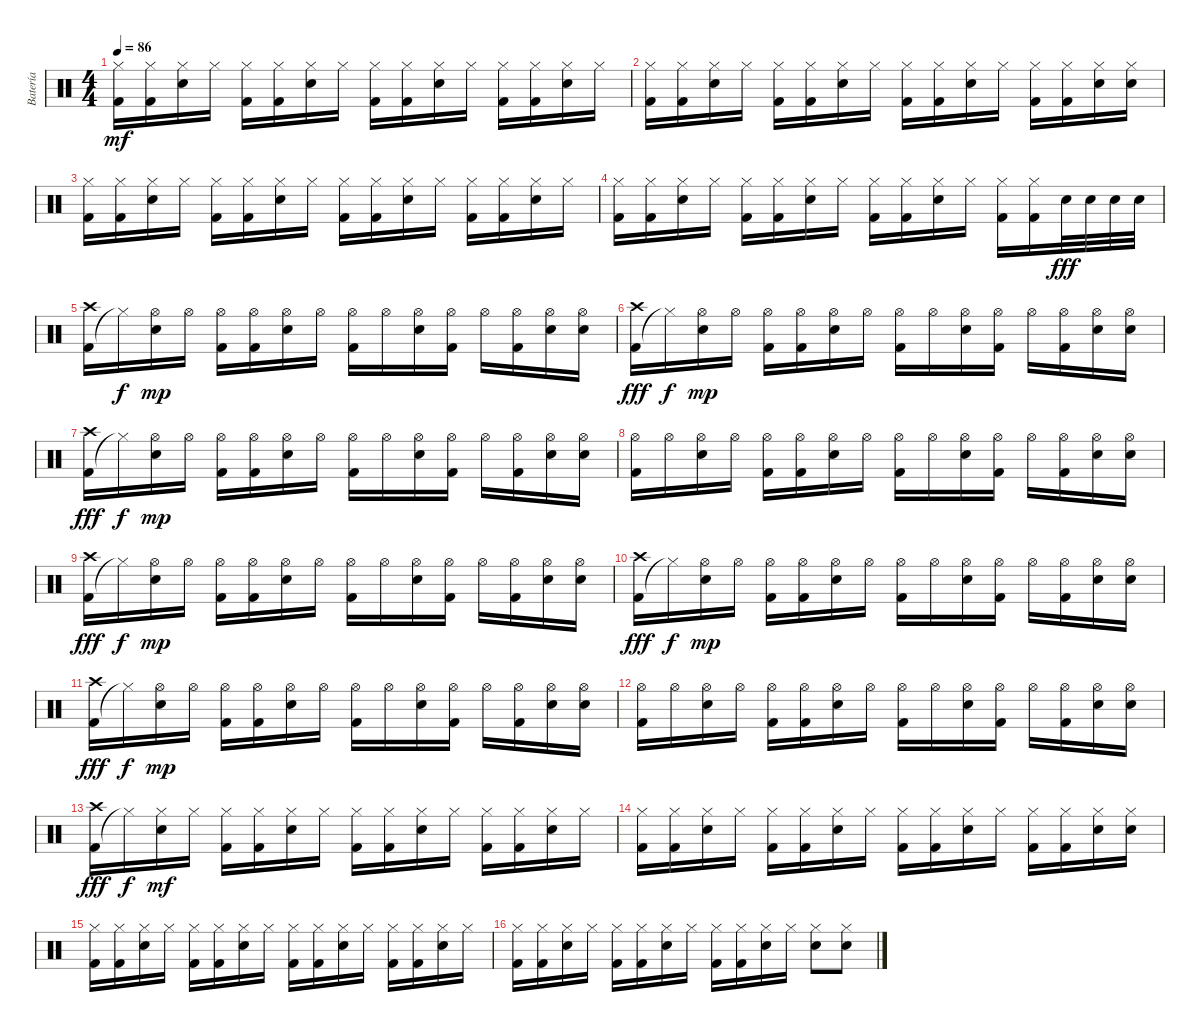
\track ("Batería" "Batería") {instrument percussion}
\staff {score}
\articulation defaults
\ts (4 4)
\tempo 86
\clef neutral
\ks c
("Kick (hit) 2" "Hi-Hat (closed)").16{dy mf} ("Kick (hit) 2" "Hi-Hat (closed)").16 ("Electric Snare (hit)" "Hi-Hat (closed)").16 "Hi-Hat (closed)".16 ("Kick (hit) 2" "Hi-Hat (closed)").16 ("Kick (hit) 2" "Hi-Hat (closed)").16 ("Electric Snare (hit)" "Hi-Hat (closed)").16 "Hi-Hat (closed)".16 ("Kick (hit) 2" "Hi-Hat (closed)").16 ("Kick (hit) 2" "Hi-Hat (closed)").16 ("Electric Snare (hit)" "Hi-Hat (closed)").16 "Hi-Hat (closed)".16 ("Kick (hit) 2" "Hi-Hat (closed)").16 ("Kick (hit) 2" "Hi-Hat (closed)").16 ("Electric Snare (hit)" "Hi-Hat (closed)").16 "Hi-Hat (closed)".16 |
("Kick (hit) 2" "Hi-Hat (closed)").16 ("Kick (hit) 2" "Hi-Hat (closed)").16 ("Electric Snare (hit)" "Hi-Hat (closed)").16 "Hi-Hat (closed)".16 ("Kick (hit) 2" "Hi-Hat (closed)").16 ("Kick (hit) 2" "Hi-Hat (closed)").16 ("Electric Snare (hit)" "Hi-Hat (closed)").16 "Hi-Hat (closed)".16 ("Kick (hit) 2" "Hi-Hat (closed)").16 ("Kick (hit) 2" "Hi-Hat (closed)").16 ("Electric Snare (hit)" "Hi-Hat (closed)").16 "Hi-Hat (closed)".16 ("Kick (hit) 2" "Hi-Hat (closed)").16 ("Kick (hit) 2" "Hi-Hat (closed)").16 ("Electric Snare (hit)" "Hi-Hat (closed)").16 ("Electric Snare (hit)" "Hi-Hat (closed)").16 |
("Kick (hit) 2" "Hi-Hat (closed)").16 ("Kick (hit) 2" "Hi-Hat (closed)").16 ("Electric Snare (hit)" "Hi-Hat (closed)").16 "Hi-Hat (closed)".16 ("Kick (hit) 2" "Hi-Hat (closed)").16 ("Kick (hit) 2" "Hi-Hat (closed)").16 ("Electric Snare (hit)" "Hi-Hat (closed)").16 "Hi-Hat (closed)".16 ("Kick (hit) 2" "Hi-Hat (closed)").16 ("Kick (hit) 2" "Hi-Hat (closed)").16 ("Electric Snare (hit)" "Hi-Hat (closed)").16 "Hi-Hat (closed)".16 ("Kick (hit) 2" "Hi-Hat (closed)").16 ("Kick (hit) 2" "Hi-Hat (closed)").16 ("Electric Snare (hit)" "Hi-Hat (closed)").16 "Hi-Hat (closed)".16 |
("Kick (hit) 2" "Hi-Hat (closed)").16 ("Kick (hit) 2" "Hi-Hat (closed)").16 ("Electric Snare (hit)" "Hi-Hat (closed)").16 "Hi-Hat (closed)".16 ("Kick (hit) 2" "Hi-Hat (closed)").16 ("Kick (hit) 2" "Hi-Hat (closed)").16 ("Electric Snare (hit)" "Hi-Hat (closed)").16 "Hi-Hat (closed)".16 ("Kick (hit) 2" "Hi-Hat (closed)").16 ("Kick (hit) 2" "Hi-Hat (closed)").16 ("Electric Snare (hit)" "Hi-Hat (closed)").16 "Hi-Hat (closed)".16 ("Kick (hit) 2" "Hi-Hat (closed)").16 ("Kick (hit) 2" "Hi-Hat (closed)").16 "Electric Snare (hit)".32{dy fff} "Electric Snare (hit)".32 "Electric Snare (hit)".32 "Electric Snare (hit)".32 |
("Kick (hit) 2" "Crash high (hit)").16 "Hi-Hat (closed)"{t}.16{dy f} ("Electric Snare (hit)" "Hi-Hat (open)").16{dy mp} "Hi-Hat (open)".16 ("Kick (hit) 2" "Hi-Hat (open)").16 ("Kick (hit) 2" "Hi-Hat (open)").16 ("Electric Snare (hit)" "Hi-Hat (open)").16 "Hi-Hat (open)".16 ("Kick (hit) 2" "Hi-Hat (open)").16 "Hi-Hat (open)".16 ("Electric Snare (hit)" "Hi-Hat (open)").16 ("Kick (hit) 2" "Hi-Hat (open)").16 "Hi-Hat (open)".16 ("Kick (hit) 2" "Hi-Hat (open)").16 ("Electric Snare (hit)" "Hi-Hat (open)").16 ("Electric Snare (hit)" "Hi-Hat (open)").16 |
("Kick (hit) 2" "Crash high (hit)").16{dy fff} "Hi-Hat (closed)"{t}.16{dy f} ("Electric Snare (hit)" "Hi-Hat (open)").16{dy mp} "Hi-Hat (open)".16 ("Kick (hit) 2" "Hi-Hat (open)").16 ("Kick (hit) 2" "Hi-Hat (open)").16 ("Electric Snare (hit)" "Hi-Hat (open)").16 "Hi-Hat (open)".16 ("Kick (hit) 2" "Hi-Hat (open)").16 "Hi-Hat (open)".16 ("Electric Snare (hit)" "Hi-Hat (open)").16 ("Kick (hit) 2" "Hi-Hat (open)").16 "Hi-Hat (open)".16 ("Kick (hit) 2" "Hi-Hat (open)").16 ("Electric Snare (hit)" "Hi-Hat (open)").16 ("Electric Snare (hit)" "Hi-Hat (open)").16 |
("Kick (hit) 2" "Crash high (hit)").16{dy fff} "Hi-Hat (closed)"{t}.16{dy f} ("Electric Snare (hit)" "Hi-Hat (open)").16{dy mp} "Hi-Hat (open)".16 ("Kick (hit) 2" "Hi-Hat (open)").16 ("Kick (hit) 2" "Hi-Hat (open)").16 ("Electric Snare (hit)" "Hi-Hat (open)").16 "Hi-Hat (open)".16 ("Kick (hit) 2" "Hi-Hat (open)").16 "Hi-Hat (open)".16 ("Electric Snare (hit)" "Hi-Hat (open)").16 ("Kick (hit) 2" "Hi-Hat (open)").16 "Hi-Hat (open)".16 ("Kick (hit) 2" "Hi-Hat (open)").16 ("Electric Snare (hit)" "Hi-Hat (open)").16 ("Electric Snare (hit)" "Hi-Hat (open)").16 |
("Kick (hit) 2" "Hi-Hat (open)").16 "Hi-Hat (open)".16 ("Electric Snare (hit)" "Hi-Hat (open)").16 "Hi-Hat (open)".16 ("Kick (hit) 2" "Hi-Hat (open)").16 ("Kick (hit) 2" "Hi-Hat (open)").16 ("Electric Snare (hit)" "Hi-Hat (open)").16 "Hi-Hat (open)".16 ("Kick (hit) 2" "Hi-Hat (open)").16 "Hi-Hat (open)".16 ("Electric Snare (hit)" "Hi-Hat (open)").16 ("Kick (hit) 2" "Hi-Hat (open)").16 "Hi-Hat (open)".16 ("Kick (hit) 2" "Hi-Hat (open)").16 ("Electric Snare (hit)" "Hi-Hat (open)").16 ("Electric Snare (hit)" "Hi-Hat (open)").16 |
("Kick (hit) 2" "Crash high (hit)").16{dy fff} "Hi-Hat (closed)"{t}.16{dy f} ("Electric Snare (hit)" "Hi-Hat (open)").16{dy mp} "Hi-Hat (open)".16 ("Kick (hit) 2" "Hi-Hat (open)").16 ("Kick (hit) 2" "Hi-Hat (open)").16 ("Electric Snare (hit)" "Hi-Hat (open)").16 "Hi-Hat (open)".16 ("Kick (hit) 2" "Hi-Hat (open)").16 "Hi-Hat (open)".16 ("Electric Snare (hit)" "Hi-Hat (open)").16 ("Kick (hit) 2" "Hi-Hat (open)").16 "Hi-Hat (open)".16 ("Kick (hit) 2" "Hi-Hat (open)").16 ("Electric Snare (hit)" "Hi-Hat (open)").16 ("Electric Snare (hit)" "Hi-Hat (open)").16 |
("Kick (hit) 2" "Crash high (hit)").16{dy fff} "Hi-Hat (closed)"{t}.16{dy f} ("Electric Snare (hit)" "Hi-Hat (open)").16{dy mp} "Hi-Hat (open)".16 ("Kick (hit) 2" "Hi-Hat (open)").16 ("Kick (hit) 2" "Hi-Hat (open)").16 ("Electric Snare (hit)" "Hi-Hat (open)").16 "Hi-Hat (open)".16 ("Kick (hit) 2" "Hi-Hat (open)").16 "Hi-Hat (open)".16 ("Electric Snare (hit)" "Hi-Hat (open)").16 ("Kick (hit) 2" "Hi-Hat (open)").16 "Hi-Hat (open)".16 ("Kick (hit) 2" "Hi-Hat (open)").16 ("Electric Snare (hit)" "Hi-Hat (open)").16 ("Electric Snare (hit)" "Hi-Hat (open)").16 |
("Kick (hit) 2" "Crash high (hit)").16{dy fff} "Hi-Hat (closed)"{t}.16{dy f} ("Electric Snare (hit)" "Hi-Hat (open)").16{dy mp} "Hi-Hat (open)".16 ("Kick (hit) 2" "Hi-Hat (open)").16 ("Kick (hit) 2" "Hi-Hat (open)").16 ("Electric Snare (hit)" "Hi-Hat (open)").16 "Hi-Hat (open)".16 ("Kick (hit) 2" "Hi-Hat (open)").16 "Hi-Hat (open)".16 ("Electric Snare (hit)" "Hi-Hat (open)").16 ("Kick (hit) 2" "Hi-Hat (open)").16 "Hi-Hat (open)".16 ("Kick (hit) 2" "Hi-Hat (open)").16 ("Electric Snare (hit)" "Hi-Hat (open)").16 ("Electric Snare (hit)" "Hi-Hat (open)").16 |
("Kick (hit) 2" "Hi-Hat (open)").16 "Hi-Hat (open)".16 ("Electric Snare (hit)" "Hi-Hat (open)").16 "Hi-Hat (open)".16 ("Kick (hit) 2" "Hi-Hat (open)").16 ("Kick (hit) 2" "Hi-Hat (open)").16 ("Electric Snare (hit)" "Hi-Hat (open)").16 "Hi-Hat (open)".16 ("Kick (hit) 2" "Hi-Hat (open)").16 "Hi-Hat (open)".16 ("Electric Snare (hit)" "Hi-Hat (open)").16 ("Kick (hit) 2" "Hi-Hat (open)").16 "Hi-Hat (open)".16 ("Kick (hit) 2" "Hi-Hat (open)").16 ("Electric Snare (hit)" "Hi-Hat (open)").16 ("Electric Snare (hit)" "Hi-Hat (open)").16 |
("Kick (hit) 2" "Crash high (hit)").16{dy fff} "Hi-Hat (closed)"{t}.16{dy f} ("Electric Snare (hit)" "Hi-Hat (closed)").16{dy mf} "Hi-Hat (closed)".16 ("Kick (hit) 2" "Hi-Hat (closed)").16 ("Kick (hit) 2" "Hi-Hat (closed)").16 ("Electric Snare (hit)" "Hi-Hat (closed)").16 "Hi-Hat (closed)".16 ("Kick (hit) 2" "Hi-Hat (closed)").16 ("Kick (hit) 2" "Hi-Hat (closed)").16 ("Electric Snare (hit)" "Hi-Hat (closed)").16 "Hi-Hat (closed)".16 ("Kick (hit) 2" "Hi-Hat (closed)").16 ("Kick (hit) 2" "Hi-Hat (closed)").16 ("Electric Snare (hit)" "Hi-Hat (closed)").16 "Hi-Hat (closed)".16 |
("Kick (hit) 2" "Hi-Hat (closed)").16 ("Kick (hit) 2" "Hi-Hat (closed)").16 ("Electric Snare (hit)" "Hi-Hat (closed)").16 "Hi-Hat (closed)".16 ("Kick (hit) 2" "Hi-Hat (closed)").16 ("Kick (hit) 2" "Hi-Hat (closed)").16 ("Electric Snare (hit)" "Hi-Hat (closed)").16 "Hi-Hat (closed)".16 ("Kick (hit) 2" "Hi-Hat (closed)").16 ("Kick (hit) 2" "Hi-Hat (closed)").16 ("Electric Snare (hit)" "Hi-Hat (closed)").16 "Hi-Hat (closed)".16 ("Kick (hit) 2" "Hi-Hat (closed)").16 ("Kick (hit) 2" "Hi-Hat (closed)").16 ("Electric Snare (hit)" "Hi-Hat (closed)").16 ("Electric Snare (hit)" "Hi-Hat (closed)").16 |
("Kick (hit) 2" "Hi-Hat (closed)").16 ("Kick (hit) 2" "Hi-Hat (closed)").16 ("Electric Snare (hit)" "Hi-Hat (closed)").16 "Hi-Hat (closed)".16 ("Kick (hit) 2" "Hi-Hat (closed)").16 ("Kick (hit) 2" "Hi-Hat (closed)").16 ("Electric Snare (hit)" "Hi-Hat (closed)").16 "Hi-Hat (closed)".16 ("Kick (hit) 2" "Hi-Hat (closed)").16 ("Kick (hit) 2" "Hi-Hat (closed)").16 ("Electric Snare (hit)" "Hi-Hat (closed)").16 "Hi-Hat (closed)".16 ("Kick (hit) 2" "Hi-Hat (closed)").16 ("Kick (hit) 2" "Hi-Hat (closed)").16 ("Electric Snare (hit)" "Hi-Hat (closed)").16 "Hi-Hat (closed)".16 |
("Kick (hit) 2" "Hi-Hat (closed)").16 ("Kick (hit) 2" "Hi-Hat (closed)").16 ("Electric Snare (hit)" "Hi-Hat (closed)").16 "Hi-Hat (closed)".16 ("Kick (hit) 2" "Hi-Hat (closed)").16 ("Kick (hit) 2" "Hi-Hat (closed)").16 ("Electric Snare (hit)" "Hi-Hat (closed)").16 "Hi-Hat (closed)".16 ("Kick (hit) 2" "Hi-Hat (closed)").16 ("Kick (hit) 2" "Hi-Hat (closed)").16 ("Electric Snare (hit)" "Hi-Hat (closed)").16 "Hi-Hat (closed)".16 ("Electric Snare (hit)" "Hi-Hat (closed)").8 ("Electric Snare (hit)" "Hi-Hat (closed)").8
